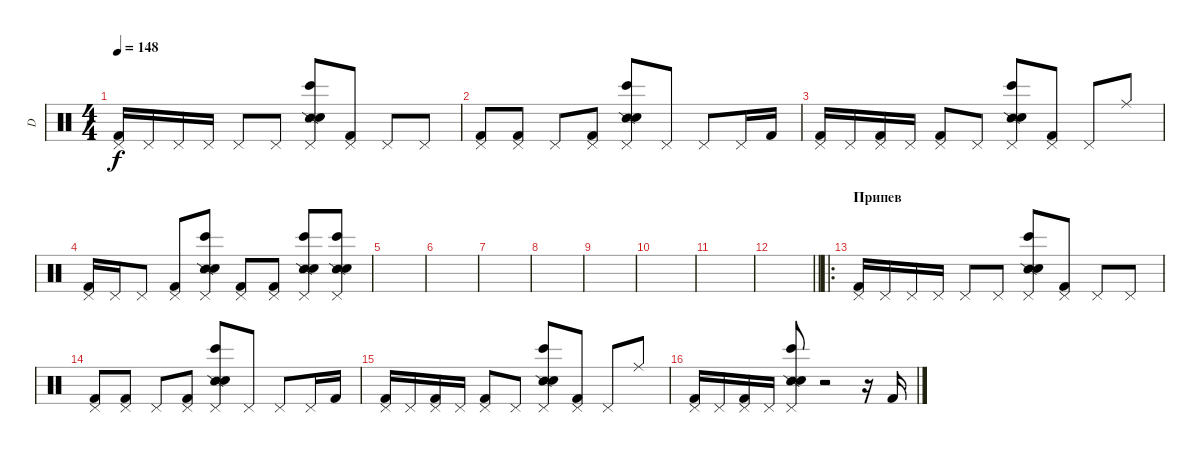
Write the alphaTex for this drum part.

\track ("D" "D") {instrument percussion}
\staff {score}
\articulation defaults
\ts (4 4)
\tempo 148
\clef neutral
\ks c
("Kick (hit) 2" "Pedal Hi-Hat (hit)").16{dy f} "Pedal Hi-Hat (hit)".16 "Pedal Hi-Hat (hit)".16 "Pedal Hi-Hat (hit)".16 "Pedal Hi-Hat (hit)".8 "Pedal Hi-Hat (hit)".8 ("Bongo High (hit)" "Snare (side stick) 2" "Electric Snare (hit)" "Pedal Hi-Hat (hit)").8 ("Kick (hit) 2" "Pedal Hi-Hat (hit)").8 "Pedal Hi-Hat (hit)".8 "Pedal Hi-Hat (hit)".8 |
("Kick (hit) 2" "Pedal Hi-Hat (hit)").8 ("Kick (hit) 2" "Pedal Hi-Hat (hit)").8 "Pedal Hi-Hat (hit)".8 ("Kick (hit) 2" "Pedal Hi-Hat (hit)").8 ("Bongo High (hit)" "Snare (side stick) 2" "Electric Snare (hit)" "Pedal Hi-Hat (hit)").8 "Pedal Hi-Hat (hit)".8 "Pedal Hi-Hat (hit)".8 "Pedal Hi-Hat (hit)".16 "Kick (hit) 2".16 |
("Kick (hit) 2" "Pedal Hi-Hat (hit)").16 "Pedal Hi-Hat (hit)".16 ("Kick (hit) 2" "Pedal Hi-Hat (hit)").16 "Pedal Hi-Hat (hit)".16 ("Kick (hit) 2" "Pedal Hi-Hat (hit)").8 "Pedal Hi-Hat (hit)".8 ("Bongo High (hit)" "Snare (side stick) 2" "Electric Snare (hit)" "Pedal Hi-Hat (hit)").8 ("Kick (hit) 2" "Pedal Hi-Hat (hit)").8 "Pedal Hi-Hat (hit)".8 "Ride (middle)".8 |
("Kick (hit) 2" "Pedal Hi-Hat (hit)").16 "Pedal Hi-Hat (hit)".16 "Pedal Hi-Hat (hit)".8 ("Kick (hit) 2" "Pedal Hi-Hat (hit)").8 ("Bongo High (hit)" "Snare (side stick) 2" "Electric Snare (hit)" "Pedal Hi-Hat (hit)").8 ("Kick (hit) 2" "Pedal Hi-Hat (hit)").8 ("Kick (hit) 2" "Pedal Hi-Hat (hit)").8 ("Bongo High (hit)" "Snare (side stick) 2" "Electric Snare (hit)" "Pedal Hi-Hat (hit)").8 ("Bongo High (hit)" "Snare (side stick) 2" "Electric Snare (hit)" "Pedal Hi-Hat (hit)").8 |
|
|
|
|
|
|
|
\barLineRight lightlight
|
\ro
\section ("" "Припев")
("Kick (hit) 2" "Pedal Hi-Hat (hit)").16 "Pedal Hi-Hat (hit)".16 "Pedal Hi-Hat (hit)".16 "Pedal Hi-Hat (hit)".16 "Pedal Hi-Hat (hit)".8 "Pedal Hi-Hat (hit)".8 ("Bongo High (hit)" "Snare (side stick) 2" "Electric Snare (hit)" "Pedal Hi-Hat (hit)").8 ("Kick (hit) 2" "Pedal Hi-Hat (hit)").8 "Pedal Hi-Hat (hit)".8 "Pedal Hi-Hat (hit)".8 |
("Kick (hit) 2" "Pedal Hi-Hat (hit)").8 ("Kick (hit) 2" "Pedal Hi-Hat (hit)").8 "Pedal Hi-Hat (hit)".8 ("Kick (hit) 2" "Pedal Hi-Hat (hit)").8 ("Bongo High (hit)" "Snare (side stick) 2" "Electric Snare (hit)" "Pedal Hi-Hat (hit)").8 "Pedal Hi-Hat (hit)".8 "Pedal Hi-Hat (hit)".8 "Pedal Hi-Hat (hit)".16 "Kick (hit) 2".16 |
("Kick (hit) 2" "Pedal Hi-Hat (hit)").16 "Pedal Hi-Hat (hit)".16 ("Kick (hit) 2" "Pedal Hi-Hat (hit)").16 "Pedal Hi-Hat (hit)".16 ("Kick (hit) 2" "Pedal Hi-Hat (hit)").8 "Pedal Hi-Hat (hit)".8 ("Bongo High (hit)" "Snare (side stick) 2" "Electric Snare (hit)" "Pedal Hi-Hat (hit)").8 ("Kick (hit) 2" "Pedal Hi-Hat (hit)").8 "Pedal Hi-Hat (hit)".8 "Ride (middle)".8 |
("Kick (hit) 2" "Pedal Hi-Hat (hit)").16 "Pedal Hi-Hat (hit)".16 ("Kick (hit) 2" "Pedal Hi-Hat (hit)").16 "Pedal Hi-Hat (hit)".16 ("Bongo High (hit)" "Snare (side stick) 2" "Electric Snare (hit)" "Pedal Hi-Hat (hit)").8 r.2 r.16 "Kick (hit) 2".16
